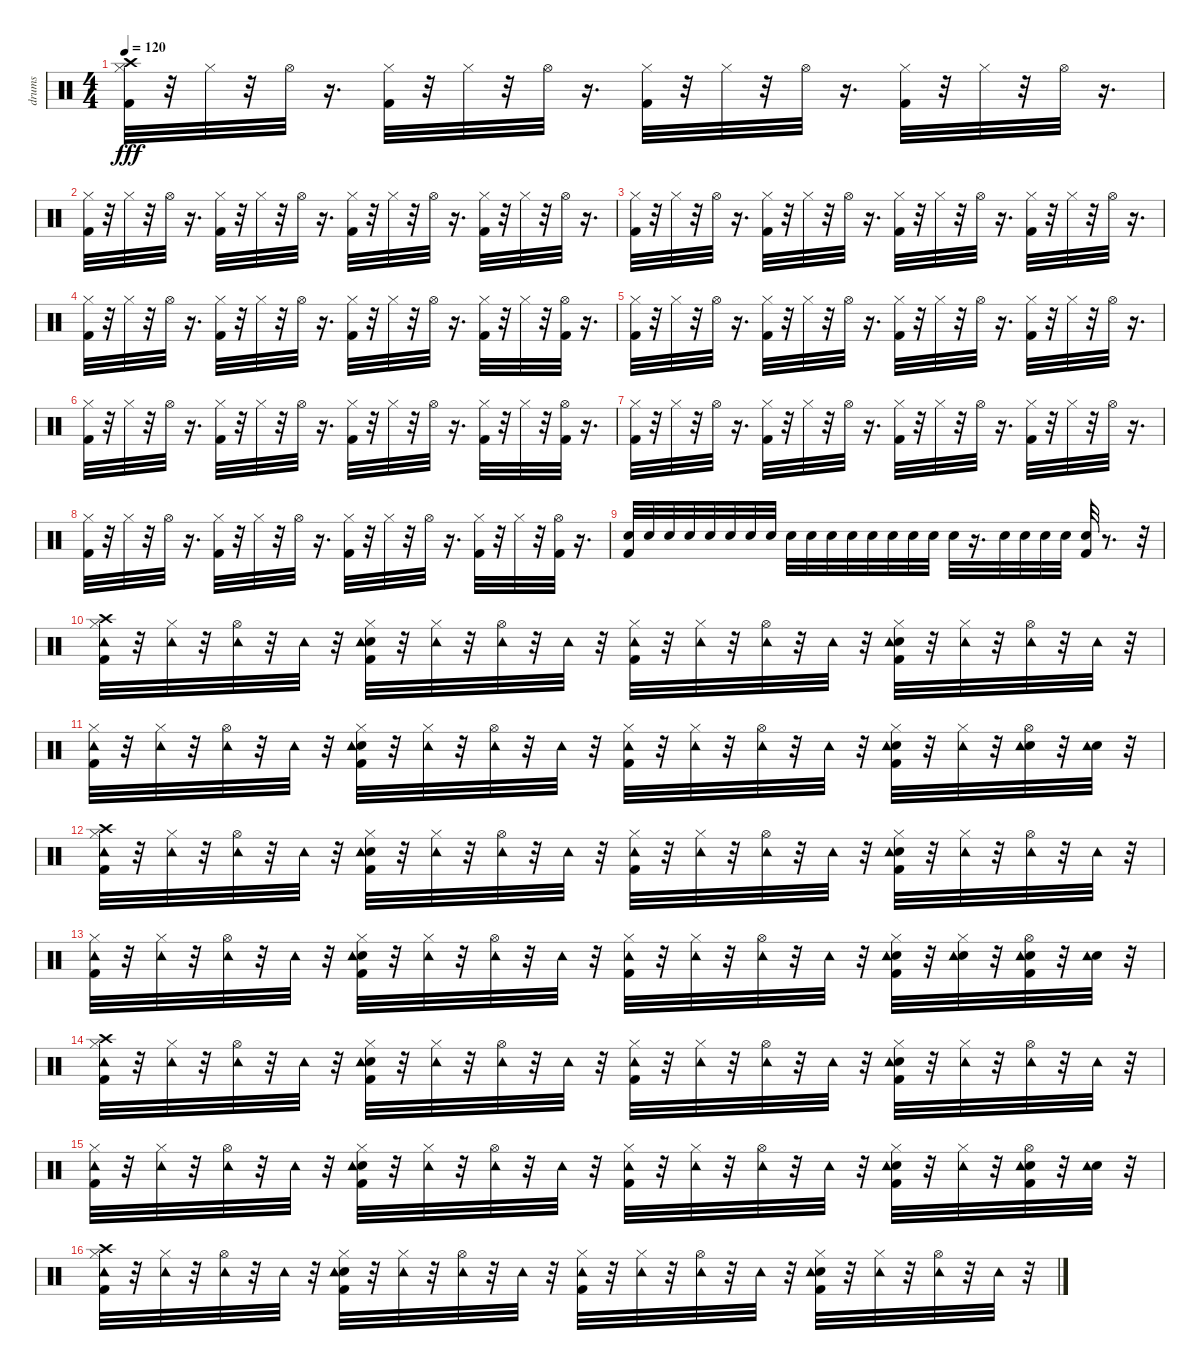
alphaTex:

\track ("drums" "drums") {instrument percussion}
\staff {score}
\articulation defaults
\ts (4 4)
\tempo 120
\clef neutral
\ks c
("Crash high (hit)" "Kick (hit) 2" "Hi-Hat (closed)").32{dy fff} r.32 "Hi-Hat (closed)".32 r.32 "Hi-Hat (open)".32 r.16{d} ("Kick (hit) 2" "Hi-Hat (closed)").32 r.32 "Hi-Hat (closed)".32 r.32 "Hi-Hat (open)".32 r.16{d} ("Kick (hit) 2" "Hi-Hat (closed)").32 r.32 "Hi-Hat (closed)".32 r.32 "Hi-Hat (open)".32 r.16{d} ("Kick (hit) 2" "Hi-Hat (closed)").32 r.32 "Hi-Hat (closed)".32 r.32 "Hi-Hat (open)".32 r.16{d} |
("Kick (hit) 2" "Hi-Hat (closed)").32 r.32 "Hi-Hat (closed)".32 r.32 "Hi-Hat (open)".32 r.16{d} ("Kick (hit) 2" "Hi-Hat (closed)").32 r.32 "Hi-Hat (closed)".32 r.32 "Hi-Hat (open)".32 r.16{d} ("Kick (hit) 2" "Hi-Hat (closed)").32 r.32 "Hi-Hat (closed)".32 r.32 "Hi-Hat (open)".32 r.16{d} ("Kick (hit) 2" "Hi-Hat (closed)").32 r.32 "Hi-Hat (closed)".32 r.32 "Hi-Hat (open)".32 r.16{d} |
("Kick (hit) 2" "Hi-Hat (closed)").32 r.32 "Hi-Hat (closed)".32 r.32 "Hi-Hat (open)".32 r.16{d} ("Kick (hit) 2" "Hi-Hat (closed)").32 r.32 "Hi-Hat (closed)".32 r.32 "Hi-Hat (open)".32 r.16{d} ("Kick (hit) 2" "Hi-Hat (closed)").32 r.32 "Hi-Hat (closed)".32 r.32 "Hi-Hat (open)".32 r.16{d} ("Kick (hit) 2" "Hi-Hat (closed)").32 r.32 "Hi-Hat (closed)".32 r.32 "Hi-Hat (open)".32 r.16{d} |
("Kick (hit) 2" "Hi-Hat (closed)").32 r.32 "Hi-Hat (closed)".32 r.32 "Hi-Hat (open)".32 r.16{d} ("Kick (hit) 2" "Hi-Hat (closed)").32 r.32 "Hi-Hat (closed)".32 r.32 "Hi-Hat (open)".32 r.16{d} ("Kick (hit) 2" "Hi-Hat (closed)").32 r.32 "Hi-Hat (closed)".32 r.32 "Hi-Hat (open)".32 r.16{d} ("Kick (hit) 2" "Hi-Hat (closed)").32 r.32 "Hi-Hat (closed)".32 r.32 ("Hi-Hat (open)" "Kick (hit) 2").32 r.16{d} |
("Kick (hit) 2" "Hi-Hat (closed)").32 r.32 "Hi-Hat (closed)".32 r.32 "Hi-Hat (open)".32 r.16{d} ("Kick (hit) 2" "Hi-Hat (closed)").32 r.32 "Hi-Hat (closed)".32 r.32 "Hi-Hat (open)".32 r.16{d} ("Kick (hit) 2" "Hi-Hat (closed)").32 r.32 "Hi-Hat (closed)".32 r.32 "Hi-Hat (open)".32 r.16{d} ("Kick (hit) 2" "Hi-Hat (closed)").32 r.32 "Hi-Hat (closed)".32 r.32 "Hi-Hat (open)".32 r.16{d} |
("Kick (hit) 2" "Hi-Hat (closed)").32 r.32 "Hi-Hat (closed)".32 r.32 "Hi-Hat (open)".32 r.16{d} ("Kick (hit) 2" "Hi-Hat (closed)").32 r.32 "Hi-Hat (closed)".32 r.32 "Hi-Hat (open)".32 r.16{d} ("Kick (hit) 2" "Hi-Hat (closed)").32 r.32 "Hi-Hat (closed)".32 r.32 "Hi-Hat (open)".32 r.16{d} ("Kick (hit) 2" "Hi-Hat (closed)").32 r.32 "Hi-Hat (closed)".32 r.32 ("Hi-Hat (open)" "Kick (hit) 2").32 r.16{d} |
("Kick (hit) 2" "Hi-Hat (closed)").32 r.32 "Hi-Hat (closed)".32 r.32 "Hi-Hat (open)".32 r.16{d} ("Kick (hit) 2" "Hi-Hat (closed)").32 r.32 "Hi-Hat (closed)".32 r.32 "Hi-Hat (open)".32 r.16{d} ("Kick (hit) 2" "Hi-Hat (closed)").32 r.32 "Hi-Hat (closed)".32 r.32 "Hi-Hat (open)".32 r.16{d} ("Kick (hit) 2" "Hi-Hat (closed)").32 r.32 "Hi-Hat (closed)".32 r.32 "Hi-Hat (open)".32 r.16{d} |
("Kick (hit) 2" "Hi-Hat (closed)").32 r.32 "Hi-Hat (closed)".32 r.32 "Hi-Hat (open)".32 r.16{d} ("Kick (hit) 2" "Hi-Hat (closed)").32 r.32 "Hi-Hat (closed)".32 r.32 "Hi-Hat (open)".32 r.16{d} ("Kick (hit) 2" "Hi-Hat (closed)").32 r.32 "Hi-Hat (closed)".32 r.32 "Hi-Hat (open)".32 r.16{d} ("Kick (hit) 2" "Hi-Hat (closed)").32 r.32 "Hi-Hat (closed)".32 r.32 ("Hi-Hat (open)" "Kick (hit) 2").32 r.16{d} |
("Kick (hit) 2" "Snare (hit) 2").32 "Snare (hit) 2".32 "Snare (hit) 2".32 "Snare (hit) 2".32 "Snare (hit) 2".32 "Snare (hit) 2".32 "Snare (hit) 2".32 "Snare (hit) 2".32 "Snare (hit) 2".32 "Snare (hit) 2".32 "Snare (hit) 2".32 "Snare (hit) 2".32 "Snare (hit) 2".32 "Snare (hit) 2".32 "Snare (hit) 2".32 "Snare (hit) 2".32 "Snare (hit) 2".32 r.16{d} "Snare (hit) 2".32 "Snare (hit) 2".32 "Snare (hit) 2".32 "Snare (hit) 2".32 ("Snare (hit) 2" "Kick (hit) 2").32 r.8{d} r.32 |
("Crash high (hit)" "Kick (hit) 2" "Hi-Hat (closed)" "Tambourine (hit)").32 r.32 ("Hi-Hat (closed)" "Tambourine (hit)").32 r.32 ("Hi-Hat (open)" "Tambourine (hit)").32 r.32 "Tambourine (hit)".32 r.32 ("Snare (hit) 2" "Kick (hit) 2" "Hi-Hat (closed)" "Tambourine (hit)").32 r.32 ("Hi-Hat (closed)" "Tambourine (hit)").32 r.32 ("Hi-Hat (open)" "Tambourine (hit)").32 r.32 "Tambourine (hit)".32 r.32 ("Kick (hit) 2" "Hi-Hat (closed)" "Tambourine (hit)").32 r.32 ("Hi-Hat (closed)" "Tambourine (hit)").32 r.32 ("Hi-Hat (open)" "Tambourine (hit)").32 r.32 "Tambourine (hit)".32 r.32 ("Snare (hit) 2" "Kick (hit) 2" "Hi-Hat (closed)" "Tambourine (hit)").32 r.32 ("Hi-Hat (closed)" "Tambourine (hit)").32 r.32 ("Hi-Hat (open)" "Tambourine (hit)").32 r.32 "Tambourine (hit)".32 r.32 |
("Kick (hit) 2" "Hi-Hat (closed)" "Tambourine (hit)").32 r.32 ("Hi-Hat (closed)" "Tambourine (hit)").32 r.32 ("Hi-Hat (open)" "Tambourine (hit)").32 r.32 "Tambourine (hit)".32 r.32 ("Snare (hit) 2" "Kick (hit) 2" "Hi-Hat (closed)" "Tambourine (hit)").32 r.32 ("Hi-Hat (closed)" "Tambourine (hit)").32 r.32 ("Hi-Hat (open)" "Tambourine (hit)").32 r.32 "Tambourine (hit)".32 r.32 ("Kick (hit) 2" "Hi-Hat (closed)" "Tambourine (hit)").32 r.32 ("Hi-Hat (closed)" "Tambourine (hit)").32 r.32 ("Hi-Hat (open)" "Tambourine (hit)").32 r.32 "Tambourine (hit)".32 r.32 ("Snare (hit) 2" "Kick (hit) 2" "Hi-Hat (closed)" "Tambourine (hit)").32 r.32 ("Hi-Hat (closed)" "Tambourine (hit)").32 r.32 ("Snare (hit) 2" "Hi-Hat (open)" "Tambourine (hit)").32 r.32 ("Snare (hit) 2" "Tambourine (hit)").32 r.32 |
("Crash high (hit)" "Kick (hit) 2" "Hi-Hat (closed)" "Tambourine (hit)").32 r.32 ("Hi-Hat (closed)" "Tambourine (hit)").32 r.32 ("Hi-Hat (open)" "Tambourine (hit)").32 r.32 "Tambourine (hit)".32 r.32 ("Snare (hit) 2" "Kick (hit) 2" "Hi-Hat (closed)" "Tambourine (hit)").32 r.32 ("Hi-Hat (closed)" "Tambourine (hit)").32 r.32 ("Hi-Hat (open)" "Tambourine (hit)").32 r.32 "Tambourine (hit)".32 r.32 ("Kick (hit) 2" "Hi-Hat (closed)" "Tambourine (hit)").32 r.32 ("Hi-Hat (closed)" "Tambourine (hit)").32 r.32 ("Hi-Hat (open)" "Tambourine (hit)").32 r.32 "Tambourine (hit)".32 r.32 ("Snare (hit) 2" "Kick (hit) 2" "Hi-Hat (closed)" "Tambourine (hit)").32 r.32 ("Hi-Hat (closed)" "Tambourine (hit)").32 r.32 ("Hi-Hat (open)" "Tambourine (hit)").32 r.32 "Tambourine (hit)".32 r.32 |
("Kick (hit) 2" "Hi-Hat (closed)" "Tambourine (hit)").32 r.32 ("Hi-Hat (closed)" "Tambourine (hit)").32 r.32 ("Hi-Hat (open)" "Tambourine (hit)").32 r.32 "Tambourine (hit)".32 r.32 ("Snare (hit) 2" "Kick (hit) 2" "Hi-Hat (closed)" "Tambourine (hit)").32 r.32 ("Hi-Hat (closed)" "Tambourine (hit)").32 r.32 ("Hi-Hat (open)" "Tambourine (hit)").32 r.32 "Tambourine (hit)".32 r.32 ("Kick (hit) 2" "Hi-Hat (closed)" "Tambourine (hit)").32 r.32 ("Hi-Hat (closed)" "Tambourine (hit)").32 r.32 ("Hi-Hat (open)" "Tambourine (hit)").32 r.32 "Tambourine (hit)".32 r.32 ("Snare (hit) 2" "Kick (hit) 2" "Hi-Hat (closed)" "Tambourine (hit)").32 r.32 ("Snare (hit) 2" "Hi-Hat (closed)" "Tambourine (hit)").32 r.32 ("Kick (hit) 2" "Snare (hit) 2" "Hi-Hat (open)" "Tambourine (hit)").32 r.32 ("Snare (hit) 2" "Tambourine (hit)").32 r.32 |
("Crash high (hit)" "Kick (hit) 2" "Hi-Hat (closed)" "Tambourine (hit)").32 r.32 ("Hi-Hat (closed)" "Tambourine (hit)").32 r.32 ("Hi-Hat (open)" "Tambourine (hit)").32 r.32 "Tambourine (hit)".32 r.32 ("Snare (hit) 2" "Kick (hit) 2" "Hi-Hat (closed)" "Tambourine (hit)").32 r.32 ("Hi-Hat (closed)" "Tambourine (hit)").32 r.32 ("Hi-Hat (open)" "Tambourine (hit)").32 r.32 "Tambourine (hit)".32 r.32 ("Kick (hit) 2" "Hi-Hat (closed)" "Tambourine (hit)").32 r.32 ("Hi-Hat (closed)" "Tambourine (hit)").32 r.32 ("Hi-Hat (open)" "Tambourine (hit)").32 r.32 "Tambourine (hit)".32 r.32 ("Snare (hit) 2" "Kick (hit) 2" "Hi-Hat (closed)" "Tambourine (hit)").32 r.32 ("Hi-Hat (closed)" "Tambourine (hit)").32 r.32 ("Hi-Hat (open)" "Tambourine (hit)").32 r.32 "Tambourine (hit)".32 r.32 |
("Kick (hit) 2" "Hi-Hat (closed)" "Tambourine (hit)").32 r.32 ("Hi-Hat (closed)" "Tambourine (hit)").32 r.32 ("Hi-Hat (open)" "Tambourine (hit)").32 r.32 "Tambourine (hit)".32 r.32 ("Snare (hit) 2" "Kick (hit) 2" "Hi-Hat (closed)" "Tambourine (hit)").32 r.32 ("Hi-Hat (closed)" "Tambourine (hit)").32 r.32 ("Hi-Hat (open)" "Tambourine (hit)").32 r.32 "Tambourine (hit)".32 r.32 ("Kick (hit) 2" "Hi-Hat (closed)" "Tambourine (hit)").32 r.32 ("Hi-Hat (closed)" "Tambourine (hit)").32 r.32 ("Hi-Hat (open)" "Tambourine (hit)").32 r.32 "Tambourine (hit)".32 r.32 ("Snare (hit) 2" "Kick (hit) 2" "Hi-Hat (closed)" "Tambourine (hit)").32 r.32 ("Hi-Hat (closed)" "Tambourine (hit)").32 r.32 ("Kick (hit) 2" "Snare (hit) 2" "Hi-Hat (open)" "Tambourine (hit)").32 r.32 ("Snare (hit) 2" "Tambourine (hit)").32 r.32 |
("Crash high (hit)" "Kick (hit) 2" "Hi-Hat (closed)" "Tambourine (hit)").32 r.32 ("Hi-Hat (closed)" "Tambourine (hit)").32 r.32 ("Hi-Hat (open)" "Tambourine (hit)").32 r.32 "Tambourine (hit)".32 r.32 ("Snare (hit) 2" "Kick (hit) 2" "Hi-Hat (closed)" "Tambourine (hit)").32 r.32 ("Hi-Hat (closed)" "Tambourine (hit)").32 r.32 ("Hi-Hat (open)" "Tambourine (hit)").32 r.32 "Tambourine (hit)".32 r.32 ("Kick (hit) 2" "Hi-Hat (closed)" "Tambourine (hit)").32 r.32 ("Hi-Hat (closed)" "Tambourine (hit)").32 r.32 ("Hi-Hat (open)" "Tambourine (hit)").32 r.32 "Tambourine (hit)".32 r.32 ("Snare (hit) 2" "Kick (hit) 2" "Hi-Hat (closed)" "Tambourine (hit)").32 r.32 ("Hi-Hat (closed)" "Tambourine (hit)").32 r.32 ("Hi-Hat (open)" "Tambourine (hit)").32 r.32 "Tambourine (hit)".32 r.32
